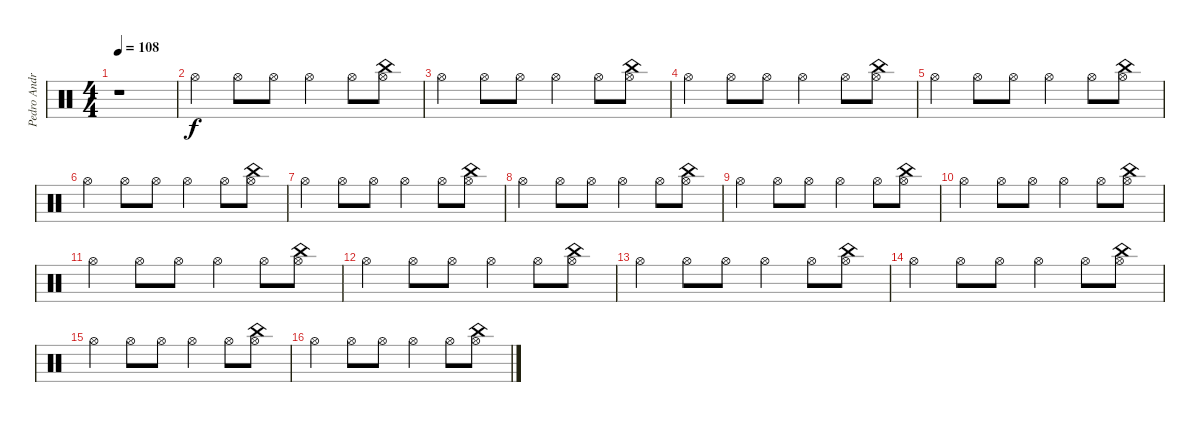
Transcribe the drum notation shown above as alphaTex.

\track ("Pedro Andreu" "Pedro Andr") {instrument percussion}
\staff {score}
\articulation defaults
\ts (4 4)
\tempo 108
\clef neutral
\ks c
r.1{dy f} |
"Hi-Hat (open)".4 "Hi-Hat (open)".8 "Hi-Hat (open)".8 "Hi-Hat (open)".4 "Hi-Hat (open)".8 ("Hi-Hat (open)" "China (hit)").8 |
"Hi-Hat (open)".4 "Hi-Hat (open)".8 "Hi-Hat (open)".8 "Hi-Hat (open)".4 "Hi-Hat (open)".8 ("Hi-Hat (open)" "China (hit)").8 |
"Hi-Hat (open)".4 "Hi-Hat (open)".8 "Hi-Hat (open)".8 "Hi-Hat (open)".4 "Hi-Hat (open)".8 ("Hi-Hat (open)" "China (hit)").8 |
"Hi-Hat (open)".4 "Hi-Hat (open)".8 "Hi-Hat (open)".8 "Hi-Hat (open)".4 "Hi-Hat (open)".8 ("Hi-Hat (open)" "China (hit)").8 |
"Hi-Hat (open)".4 "Hi-Hat (open)".8 "Hi-Hat (open)".8 "Hi-Hat (open)".4 "Hi-Hat (open)".8 ("Hi-Hat (open)" "China (hit)").8 |
"Hi-Hat (open)".4 "Hi-Hat (open)".8 "Hi-Hat (open)".8 "Hi-Hat (open)".4 "Hi-Hat (open)".8 ("Hi-Hat (open)" "China (hit)").8 |
"Hi-Hat (open)".4 "Hi-Hat (open)".8 "Hi-Hat (open)".8 "Hi-Hat (open)".4 "Hi-Hat (open)".8 ("Hi-Hat (open)" "China (hit)").8 |
"Hi-Hat (open)".4 "Hi-Hat (open)".8 "Hi-Hat (open)".8 "Hi-Hat (open)".4 "Hi-Hat (open)".8 ("Hi-Hat (open)" "China (hit)").8 |
"Hi-Hat (open)".4 "Hi-Hat (open)".8 "Hi-Hat (open)".8 "Hi-Hat (open)".4 "Hi-Hat (open)".8 ("Hi-Hat (open)" "China (hit)").8 |
"Hi-Hat (open)".4 "Hi-Hat (open)".8 "Hi-Hat (open)".8 "Hi-Hat (open)".4 "Hi-Hat (open)".8 ("Hi-Hat (open)" "China (hit)").8 |
"Hi-Hat (open)".4 "Hi-Hat (open)".8 "Hi-Hat (open)".8 "Hi-Hat (open)".4 "Hi-Hat (open)".8 ("Hi-Hat (open)" "China (hit)").8 |
"Hi-Hat (open)".4 "Hi-Hat (open)".8 "Hi-Hat (open)".8 "Hi-Hat (open)".4 "Hi-Hat (open)".8 ("Hi-Hat (open)" "China (hit)").8 |
"Hi-Hat (open)".4 "Hi-Hat (open)".8 "Hi-Hat (open)".8 "Hi-Hat (open)".4 "Hi-Hat (open)".8 ("Hi-Hat (open)" "China (hit)").8 |
"Hi-Hat (open)".4 "Hi-Hat (open)".8 "Hi-Hat (open)".8 "Hi-Hat (open)".4 "Hi-Hat (open)".8 ("Hi-Hat (open)" "China (hit)").8 |
"Hi-Hat (open)".4 "Hi-Hat (open)".8 "Hi-Hat (open)".8 "Hi-Hat (open)".4 "Hi-Hat (open)".8 ("Hi-Hat (open)" "China (hit)").8
